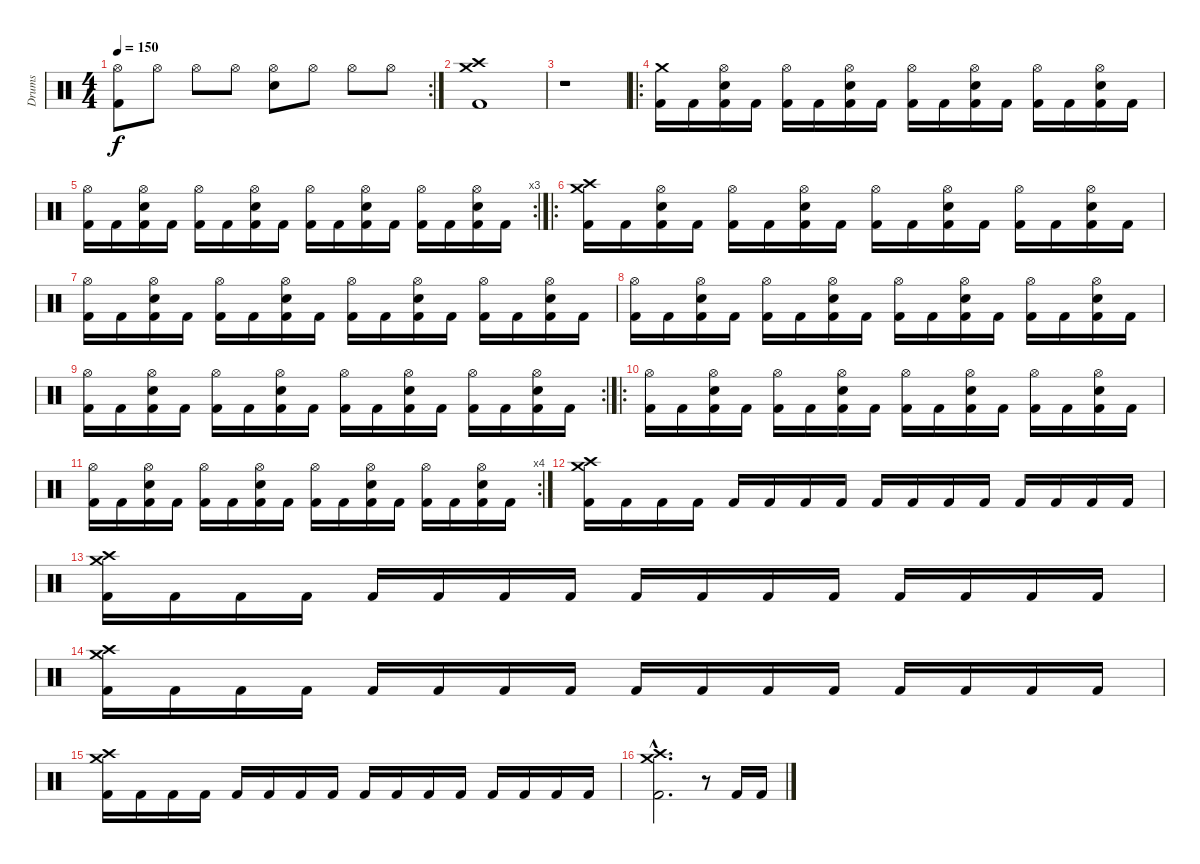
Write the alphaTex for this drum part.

\track ("Drums" "Drums") {instrument percussion}
\staff {score}
\articulation defaults
\rc 2
\ts (4 4)
\tempo 150
\clef neutral
\ks c
("Hi-Hat (open)" "Kick (hit) 2").8{dy f} "Hi-Hat (open)".8 "Hi-Hat (open)".8 "Hi-Hat (open)".8 ("Hi-Hat (open)" "Electric Snare (hit)").8 "Hi-Hat (open)".8 "Hi-Hat (open)".8 "Hi-Hat (open)".8 |
("Crash medium (hit)" "Crash high (hit)" "Kick (hit) 2").1 |
r.1 |
\ro
("Crash medium (hit)" "Kick (hit) 2").16 "Kick (hit) 2".16 ("Hi-Hat (open)" "Electric Snare (hit)" "Kick (hit) 2").16 "Kick (hit) 2".16 ("Hi-Hat (open)" "Kick (hit) 2").16 "Kick (hit) 2".16 ("Hi-Hat (open)" "Electric Snare (hit)" "Kick (hit) 2").16 "Kick (hit) 2".16 ("Hi-Hat (open)" "Kick (hit) 2").16 "Kick (hit) 2".16 ("Hi-Hat (open)" "Electric Snare (hit)" "Kick (hit) 2").16 "Kick (hit) 2".16 ("Hi-Hat (open)" "Kick (hit) 2").16 "Kick (hit) 2".16 ("Hi-Hat (open)" "Electric Snare (hit)" "Kick (hit) 2").16 "Kick (hit) 2".16 |
\rc 3
("Hi-Hat (open)" "Kick (hit) 2").16 "Kick (hit) 2".16 ("Hi-Hat (open)" "Electric Snare (hit)" "Kick (hit) 2").16 "Kick (hit) 2".16 ("Hi-Hat (open)" "Kick (hit) 2").16 "Kick (hit) 2".16 ("Hi-Hat (open)" "Electric Snare (hit)" "Kick (hit) 2").16 "Kick (hit) 2".16 ("Hi-Hat (open)" "Kick (hit) 2").16 "Kick (hit) 2".16 ("Hi-Hat (open)" "Electric Snare (hit)" "Kick (hit) 2").16 "Kick (hit) 2".16 ("Hi-Hat (open)" "Kick (hit) 2").16 "Kick (hit) 2".16 ("Hi-Hat (open)" "Electric Snare (hit)" "Kick (hit) 2").16 "Kick (hit) 2".16 |
\ro
("Crash medium (hit)" "Crash high (hit)" "Kick (hit) 2").16 "Kick (hit) 2".16 ("Hi-Hat (open)" "Electric Snare (hit)" "Kick (hit) 2").16 "Kick (hit) 2".16 ("Hi-Hat (open)" "Kick (hit) 2").16 "Kick (hit) 2".16 ("Hi-Hat (open)" "Electric Snare (hit)" "Kick (hit) 2").16 "Kick (hit) 2".16 ("Hi-Hat (open)" "Kick (hit) 2").16 "Kick (hit) 2".16 ("Hi-Hat (open)" "Electric Snare (hit)" "Kick (hit) 2").16 "Kick (hit) 2".16 ("Hi-Hat (open)" "Kick (hit) 2").16 "Kick (hit) 2".16 ("Hi-Hat (open)" "Electric Snare (hit)" "Kick (hit) 2").16 "Kick (hit) 2".16 |
("Hi-Hat (open)" "Kick (hit) 2").16 "Kick (hit) 2".16 ("Hi-Hat (open)" "Electric Snare (hit)" "Kick (hit) 2").16 "Kick (hit) 2".16 ("Hi-Hat (open)" "Kick (hit) 2").16 "Kick (hit) 2".16 ("Hi-Hat (open)" "Electric Snare (hit)" "Kick (hit) 2").16 "Kick (hit) 2".16 ("Hi-Hat (open)" "Kick (hit) 2").16 "Kick (hit) 2".16 ("Hi-Hat (open)" "Electric Snare (hit)" "Kick (hit) 2").16 "Kick (hit) 2".16 ("Hi-Hat (open)" "Kick (hit) 2").16 "Kick (hit) 2".16 ("Hi-Hat (open)" "Electric Snare (hit)" "Kick (hit) 2").16 "Kick (hit) 2".16 |
("Hi-Hat (open)" "Kick (hit) 2").16 "Kick (hit) 2".16 ("Hi-Hat (open)" "Electric Snare (hit)" "Kick (hit) 2").16 "Kick (hit) 2".16 ("Hi-Hat (open)" "Kick (hit) 2").16 "Kick (hit) 2".16 ("Hi-Hat (open)" "Electric Snare (hit)" "Kick (hit) 2").16 "Kick (hit) 2".16 ("Hi-Hat (open)" "Kick (hit) 2").16 "Kick (hit) 2".16 ("Hi-Hat (open)" "Electric Snare (hit)" "Kick (hit) 2").16 "Kick (hit) 2".16 ("Hi-Hat (open)" "Kick (hit) 2").16 "Kick (hit) 2".16 ("Hi-Hat (open)" "Electric Snare (hit)" "Kick (hit) 2").16 "Kick (hit) 2".16 |
\rc 2
("Hi-Hat (open)" "Kick (hit) 2").16 "Kick (hit) 2".16 ("Hi-Hat (open)" "Electric Snare (hit)" "Kick (hit) 2").16 "Kick (hit) 2".16 ("Hi-Hat (open)" "Kick (hit) 2").16 "Kick (hit) 2".16 ("Hi-Hat (open)" "Electric Snare (hit)" "Kick (hit) 2").16 "Kick (hit) 2".16 ("Hi-Hat (open)" "Kick (hit) 2").16 "Kick (hit) 2".16 ("Hi-Hat (open)" "Electric Snare (hit)" "Kick (hit) 2").16 "Kick (hit) 2".16 ("Hi-Hat (open)" "Kick (hit) 2").16 "Kick (hit) 2".16 ("Hi-Hat (open)" "Electric Snare (hit)" "Kick (hit) 2").16 "Kick (hit) 2".16 |
\ro
("Hi-Hat (open)" "Kick (hit) 2").16 "Kick (hit) 2".16 ("Hi-Hat (open)" "Electric Snare (hit)" "Kick (hit) 2").16 "Kick (hit) 2".16 ("Hi-Hat (open)" "Kick (hit) 2").16 "Kick (hit) 2".16 ("Hi-Hat (open)" "Electric Snare (hit)" "Kick (hit) 2").16 "Kick (hit) 2".16 ("Hi-Hat (open)" "Kick (hit) 2").16 "Kick (hit) 2".16 ("Hi-Hat (open)" "Electric Snare (hit)" "Kick (hit) 2").16 "Kick (hit) 2".16 ("Hi-Hat (open)" "Kick (hit) 2").16 "Kick (hit) 2".16 ("Hi-Hat (open)" "Electric Snare (hit)" "Kick (hit) 2").16 "Kick (hit) 2".16 |
\rc 4
("Hi-Hat (open)" "Kick (hit) 2").16 "Kick (hit) 2".16 ("Hi-Hat (open)" "Electric Snare (hit)" "Kick (hit) 2").16 "Kick (hit) 2".16 ("Hi-Hat (open)" "Kick (hit) 2").16 "Kick (hit) 2".16 ("Hi-Hat (open)" "Electric Snare (hit)" "Kick (hit) 2").16 "Kick (hit) 2".16 ("Hi-Hat (open)" "Kick (hit) 2").16 "Kick (hit) 2".16 ("Hi-Hat (open)" "Electric Snare (hit)" "Kick (hit) 2").16 "Kick (hit) 2".16 ("Hi-Hat (open)" "Kick (hit) 2").16 "Kick (hit) 2".16 ("Hi-Hat (open)" "Electric Snare (hit)" "Kick (hit) 2").16 "Kick (hit) 2".16 |
("Crash medium (hit)" "Crash high (hit)" "Kick (hit) 2").16 "Kick (hit) 2".16 "Kick (hit) 2".16 "Kick (hit) 2".16 "Kick (hit) 2".16 "Kick (hit) 2".16 "Kick (hit) 2".16 "Kick (hit) 2".16 "Kick (hit) 2".16 "Kick (hit) 2".16 "Kick (hit) 2".16 "Kick (hit) 2".16 "Kick (hit) 2".16 "Kick (hit) 2".16 "Kick (hit) 2".16 "Kick (hit) 2".16 |
("Crash medium (hit)" "Crash high (hit)" "Kick (hit) 2").16 "Kick (hit) 2".16 "Kick (hit) 2".16 "Kick (hit) 2".16 "Kick (hit) 2".16 "Kick (hit) 2".16 "Kick (hit) 2".16 "Kick (hit) 2".16 "Kick (hit) 2".16 "Kick (hit) 2".16 "Kick (hit) 2".16 "Kick (hit) 2".16 "Kick (hit) 2".16 "Kick (hit) 2".16 "Kick (hit) 2".16 "Kick (hit) 2".16 |
("Crash medium (hit)" "Crash high (hit)" "Kick (hit) 2").16 "Kick (hit) 2".16 "Kick (hit) 2".16 "Kick (hit) 2".16 "Kick (hit) 2".16 "Kick (hit) 2".16 "Kick (hit) 2".16 "Kick (hit) 2".16 "Kick (hit) 2".16 "Kick (hit) 2".16 "Kick (hit) 2".16 "Kick (hit) 2".16 "Kick (hit) 2".16 "Kick (hit) 2".16 "Kick (hit) 2".16 "Kick (hit) 2".16 |
("Crash medium (hit)" "Crash high (hit)" "Kick (hit) 2").16 "Kick (hit) 2".16 "Kick (hit) 2".16 "Kick (hit) 2".16 "Kick (hit) 2".16 "Kick (hit) 2".16 "Kick (hit) 2".16 "Kick (hit) 2".16 "Kick (hit) 2".16 "Kick (hit) 2".16 "Kick (hit) 2".16 "Kick (hit) 2".16 "Kick (hit) 2".16 "Kick (hit) 2".16 "Kick (hit) 2".16 "Kick (hit) 2".16 |
("Crash medium (hit)"{hac} "Crash high (hit)"{hac} "Kick (hit) 2"{hac}).2{d} r.8 "Kick (hit) 2".16 "Kick (hit) 2".16
